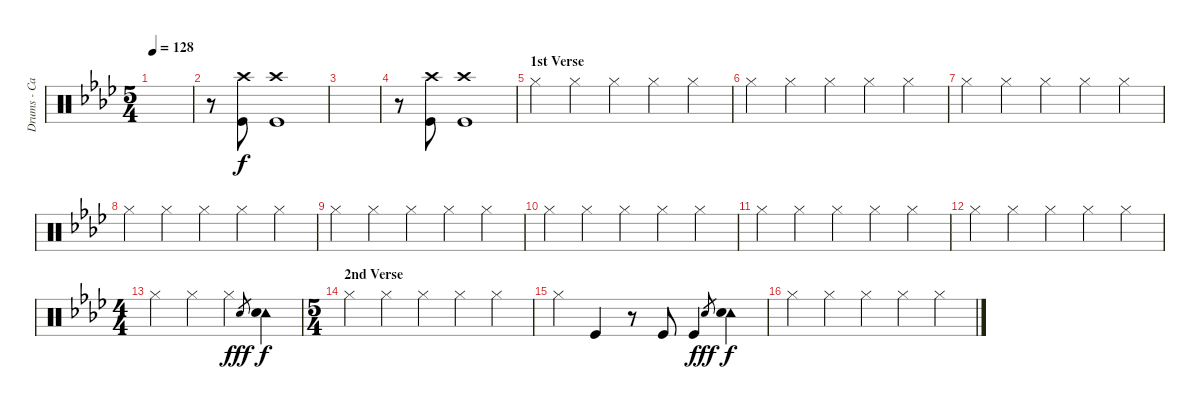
\track ("Drums - Carl Palmer" "Drums - Ca") {instrument percussion}
\staff {score}
\articulation defaults
\ts (5 4)
\tempo 128
\clef neutral
\ks ab
|
r.8 ("Crash high (hit)" "Kick (hit)").8 ("Crash high (hit)" "Kick (hit)").1 |
|
r.8 ("Crash high (hit)" "Kick (hit)").8 ("Crash high (hit)" "Kick (hit)").1 |
\section ("" "1st Verse")
"Hi-Hat (closed)".4 "Hi-Hat (closed)".4 "Hi-Hat (closed)".4 "Hi-Hat (closed)".4 "Hi-Hat (closed)".4 |
"Hi-Hat (closed)".4 "Hi-Hat (closed)".4 "Hi-Hat (closed)".4 "Hi-Hat (closed)".4 "Hi-Hat (closed)".4 |
"Hi-Hat (closed)".4 "Hi-Hat (closed)".4 "Hi-Hat (closed)".4 "Hi-Hat (closed)".4 "Hi-Hat (closed)".4 |
"Hi-Hat (closed)".4 "Hi-Hat (closed)".4 "Hi-Hat (closed)".4 "Hi-Hat (closed)".4 "Hi-Hat (closed)".4 |
"Hi-Hat (closed)".4 "Hi-Hat (closed)".4 "Hi-Hat (closed)".4 "Hi-Hat (closed)".4 "Hi-Hat (closed)".4 |
"Hi-Hat (closed)".4 "Hi-Hat (closed)".4 "Hi-Hat (closed)".4 "Hi-Hat (closed)".4 "Hi-Hat (closed)".4 |
"Hi-Hat (closed)".4 "Hi-Hat (closed)".4 "Hi-Hat (closed)".4 "Hi-Hat (closed)".4 "Hi-Hat (closed)".4 |
"Hi-Hat (closed)".4 "Hi-Hat (closed)".4 "Hi-Hat (closed)".4 "Hi-Hat (closed)".4 "Hi-Hat (closed)".4 |
\ts (4 4)
"Hi-Hat (closed)".4 "Hi-Hat (closed)".4 "Hi-Hat (closed)".4 "Snare (hit) 2".8{gr dy fff} ("Tambourine (hit)" "Snare (hit) 2").4{dy f} |
\ts (5 4)
\section ("" "2nd Verse")
"Hi-Hat (closed)".4 "Hi-Hat (closed)".4 "Hi-Hat (closed)".4 "Hi-Hat (closed)".4 "Hi-Hat (closed)".4 |
"Hi-Hat (closed)".4 "Kick (hit)".4 r.8 "Kick (hit)".8 "Kick (hit)".4 "Snare (hit) 2".8{gr dy fff} ("Tambourine (hit)" "Snare (hit) 2").4{dy f} |
"Hi-Hat (closed)".4 "Hi-Hat (closed)".4 "Hi-Hat (closed)".4 "Hi-Hat (closed)".4 "Hi-Hat (closed)".4
